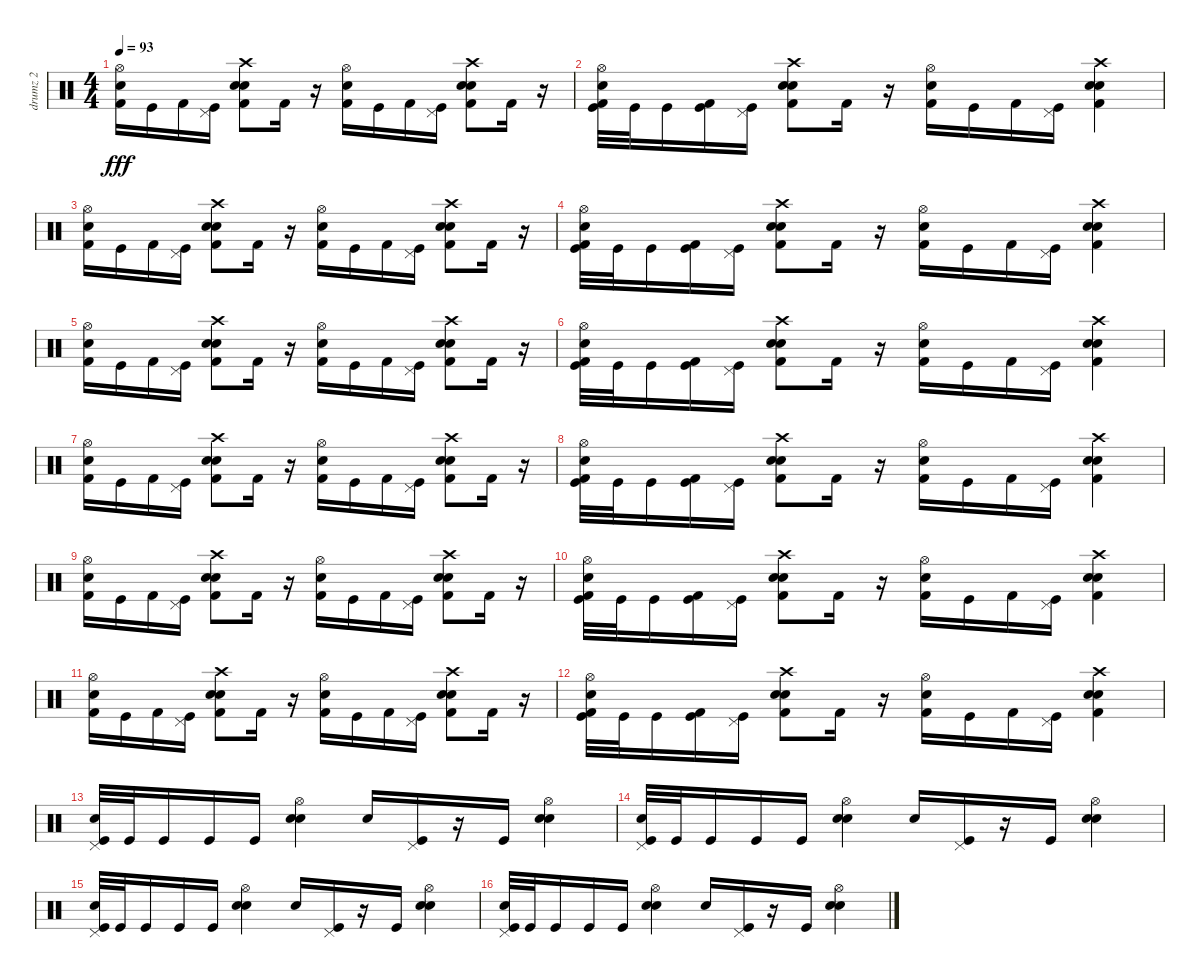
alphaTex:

\track ("drumz 2" "drumz 2") {instrument percussion}
\staff {score}
\articulation defaults
\ts (4 4)
\tempo 93
\clef neutral
\ks c
("Hi-Hat (open)" "Hand Clap (hit)" "Kick (hit) 2").16{dy fff} "Kick (hit)".16 "Kick (hit) 2".16 ("Kick (hit)" "Pedal Hi-Hat (hit)").16 ("Snare (hit) 2" "Crash high (hit)" "Hand Clap (hit)" "Kick (hit) 2").8 "Kick (hit) 2".16 r.16 ("Hi-Hat (open)" "Hand Clap (hit)" "Kick (hit) 2").16 "Kick (hit)".16 "Kick (hit) 2".16 ("Kick (hit)" "Pedal Hi-Hat (hit)").16 ("Snare (hit) 2" "Crash high (hit)" "Hand Clap (hit)" "Kick (hit) 2").8 "Kick (hit) 2".16 r.16 |
("Kick (hit)" "Hand Clap (hit)" "Hi-Hat (open)" "Kick (hit) 2").32 "Kick (hit)".32 "Kick (hit)".16 ("Kick (hit)" "Kick (hit) 2").16 ("Kick (hit)" "Pedal Hi-Hat (hit)").16 ("Snare (hit) 2" "Hand Clap (hit)" "Crash high (hit)" "Kick (hit) 2").8 "Kick (hit) 2".16 r.16 ("Hand Clap (hit)" "Hi-Hat (open)" "Kick (hit) 2").16 "Kick (hit)".16 "Kick (hit) 2".16 ("Kick (hit)" "Pedal Hi-Hat (hit)").16 ("Snare (hit) 2" "Hand Clap (hit)" "Crash high (hit)" "Kick (hit) 2").4 |
("Hi-Hat (open)" "Hand Clap (hit)" "Kick (hit) 2").16 "Kick (hit)".16 "Kick (hit) 2".16 ("Kick (hit)" "Pedal Hi-Hat (hit)").16 ("Snare (hit) 2" "Crash high (hit)" "Hand Clap (hit)" "Kick (hit) 2").8 "Kick (hit) 2".16 r.16 ("Hi-Hat (open)" "Hand Clap (hit)" "Kick (hit) 2").16 "Kick (hit)".16 "Kick (hit) 2".16 ("Kick (hit)" "Pedal Hi-Hat (hit)").16 ("Snare (hit) 2" "Crash high (hit)" "Hand Clap (hit)" "Kick (hit) 2").8 "Kick (hit) 2".16 r.16 |
("Kick (hit)" "Hand Clap (hit)" "Hi-Hat (open)" "Kick (hit) 2").32 "Kick (hit)".32 "Kick (hit)".16 ("Kick (hit)" "Kick (hit) 2").16 ("Kick (hit)" "Pedal Hi-Hat (hit)").16 ("Snare (hit) 2" "Hand Clap (hit)" "Crash high (hit)" "Kick (hit) 2").8 "Kick (hit) 2".16 r.16 ("Hand Clap (hit)" "Hi-Hat (open)" "Kick (hit) 2").16 "Kick (hit)".16 "Kick (hit) 2".16 ("Kick (hit)" "Pedal Hi-Hat (hit)").16 ("Snare (hit) 2" "Hand Clap (hit)" "Crash high (hit)" "Kick (hit) 2").4 |
("Hi-Hat (open)" "Hand Clap (hit)" "Kick (hit) 2").16 "Kick (hit)".16 "Kick (hit) 2".16 ("Kick (hit)" "Pedal Hi-Hat (hit)").16 ("Snare (hit) 2" "Crash high (hit)" "Hand Clap (hit)" "Kick (hit) 2").8 "Kick (hit) 2".16 r.16 ("Hi-Hat (open)" "Hand Clap (hit)" "Kick (hit) 2").16 "Kick (hit)".16 "Kick (hit) 2".16 ("Kick (hit)" "Pedal Hi-Hat (hit)").16 ("Snare (hit) 2" "Crash high (hit)" "Hand Clap (hit)" "Kick (hit) 2").8 "Kick (hit) 2".16 r.16 |
("Kick (hit)" "Hand Clap (hit)" "Hi-Hat (open)" "Kick (hit) 2").32 "Kick (hit)".32 "Kick (hit)".16 ("Kick (hit)" "Kick (hit) 2").16 ("Kick (hit)" "Pedal Hi-Hat (hit)").16 ("Snare (hit) 2" "Hand Clap (hit)" "Crash high (hit)" "Kick (hit) 2").8 "Kick (hit) 2".16 r.16 ("Hand Clap (hit)" "Hi-Hat (open)" "Kick (hit) 2").16 "Kick (hit)".16 "Kick (hit) 2".16 ("Kick (hit)" "Pedal Hi-Hat (hit)").16 ("Snare (hit) 2" "Hand Clap (hit)" "Crash high (hit)" "Kick (hit) 2").4 |
("Hi-Hat (open)" "Hand Clap (hit)" "Kick (hit) 2").16 "Kick (hit)".16 "Kick (hit) 2".16 ("Kick (hit)" "Pedal Hi-Hat (hit)").16 ("Snare (hit) 2" "Crash high (hit)" "Hand Clap (hit)" "Kick (hit) 2").8 "Kick (hit) 2".16 r.16 ("Hi-Hat (open)" "Hand Clap (hit)" "Kick (hit) 2").16 "Kick (hit)".16 "Kick (hit) 2".16 ("Kick (hit)" "Pedal Hi-Hat (hit)").16 ("Snare (hit) 2" "Crash high (hit)" "Hand Clap (hit)" "Kick (hit) 2").8 "Kick (hit) 2".16 r.16 |
("Kick (hit)" "Hand Clap (hit)" "Hi-Hat (open)" "Kick (hit) 2").32 "Kick (hit)".32 "Kick (hit)".16 ("Kick (hit)" "Kick (hit) 2").16 ("Kick (hit)" "Pedal Hi-Hat (hit)").16 ("Snare (hit) 2" "Hand Clap (hit)" "Crash high (hit)" "Kick (hit) 2").8 "Kick (hit) 2".16 r.16 ("Hand Clap (hit)" "Hi-Hat (open)" "Kick (hit) 2").16 "Kick (hit)".16 "Kick (hit) 2".16 ("Kick (hit)" "Pedal Hi-Hat (hit)").16 ("Snare (hit) 2" "Hand Clap (hit)" "Crash high (hit)" "Kick (hit) 2").4 |
("Hi-Hat (open)" "Hand Clap (hit)" "Kick (hit) 2").16 "Kick (hit)".16 "Kick (hit) 2".16 ("Kick (hit)" "Pedal Hi-Hat (hit)").16 ("Snare (hit) 2" "Crash high (hit)" "Hand Clap (hit)" "Kick (hit) 2").8 "Kick (hit) 2".16 r.16 ("Hi-Hat (open)" "Hand Clap (hit)" "Kick (hit) 2").16 "Kick (hit)".16 "Kick (hit) 2".16 ("Kick (hit)" "Pedal Hi-Hat (hit)").16 ("Snare (hit) 2" "Crash high (hit)" "Hand Clap (hit)" "Kick (hit) 2").8 "Kick (hit) 2".16 r.16 |
("Kick (hit)" "Hand Clap (hit)" "Hi-Hat (open)" "Kick (hit) 2").32 "Kick (hit)".32 "Kick (hit)".16 ("Kick (hit)" "Kick (hit) 2").16 ("Kick (hit)" "Pedal Hi-Hat (hit)").16 ("Snare (hit) 2" "Hand Clap (hit)" "Crash high (hit)" "Kick (hit) 2").8 "Kick (hit) 2".16 r.16 ("Hand Clap (hit)" "Hi-Hat (open)" "Kick (hit) 2").16 "Kick (hit)".16 "Kick (hit) 2".16 ("Kick (hit)" "Pedal Hi-Hat (hit)").16 ("Snare (hit) 2" "Hand Clap (hit)" "Crash high (hit)" "Kick (hit) 2").4 |
("Hi-Hat (open)" "Hand Clap (hit)" "Kick (hit) 2").16 "Kick (hit)".16 "Kick (hit) 2".16 ("Kick (hit)" "Pedal Hi-Hat (hit)").16 ("Snare (hit) 2" "Crash high (hit)" "Hand Clap (hit)" "Kick (hit) 2").8 "Kick (hit) 2".16 r.16 ("Hi-Hat (open)" "Hand Clap (hit)" "Kick (hit) 2").16 "Kick (hit)".16 "Kick (hit) 2".16 ("Kick (hit)" "Pedal Hi-Hat (hit)").16 ("Snare (hit) 2" "Crash high (hit)" "Hand Clap (hit)" "Kick (hit) 2").8 "Kick (hit) 2".16 r.16 |
("Kick (hit)" "Hand Clap (hit)" "Hi-Hat (open)" "Kick (hit) 2").32 "Kick (hit)".32 "Kick (hit)".16 ("Kick (hit)" "Kick (hit) 2").16 ("Kick (hit)" "Pedal Hi-Hat (hit)").16 ("Snare (hit) 2" "Hand Clap (hit)" "Crash high (hit)" "Kick (hit) 2").8 "Kick (hit) 2".16 r.16 ("Hand Clap (hit)" "Hi-Hat (open)" "Kick (hit) 2").16 "Kick (hit)".16 "Kick (hit) 2".16 ("Kick (hit)" "Pedal Hi-Hat (hit)").16 ("Snare (hit) 2" "Hand Clap (hit)" "Crash high (hit)" "Kick (hit) 2").4 |
("Kick (hit)" "Pedal Hi-Hat (hit)" "Hand Clap (hit)").32 "Kick (hit)".32 "Kick (hit)".16 "Kick (hit)".16 "Kick (hit)".16 ("Snare (hit) 2" "Hi-Hat (open)" "Hand Clap (hit)").4 "Hand Clap (hit)".16 ("Kick (hit)" "Pedal Hi-Hat (hit)").16 r.16 "Kick (hit)".16 ("Snare (hit) 2" "Hi-Hat (open)" "Hand Clap (hit)").4 |
("Kick (hit)" "Pedal Hi-Hat (hit)" "Hand Clap (hit)").32 "Kick (hit)".32 "Kick (hit)".16 "Kick (hit)".16 "Kick (hit)".16 ("Snare (hit) 2" "Hi-Hat (open)" "Hand Clap (hit)").4 "Hand Clap (hit)".16 ("Kick (hit)" "Pedal Hi-Hat (hit)").16 r.16 "Kick (hit)".16 ("Snare (hit) 2" "Hi-Hat (open)" "Hand Clap (hit)").4 |
("Kick (hit)" "Pedal Hi-Hat (hit)" "Hand Clap (hit)").32 "Kick (hit)".32 "Kick (hit)".16 "Kick (hit)".16 "Kick (hit)".16 ("Snare (hit) 2" "Hi-Hat (open)" "Hand Clap (hit)").4 "Hand Clap (hit)".16 ("Kick (hit)" "Pedal Hi-Hat (hit)").16 r.16 "Kick (hit)".16 ("Snare (hit) 2" "Hi-Hat (open)" "Hand Clap (hit)").4 |
("Kick (hit)" "Pedal Hi-Hat (hit)" "Hand Clap (hit)").32 "Kick (hit)".32 "Kick (hit)".16 "Kick (hit)".16 "Kick (hit)".16 ("Snare (hit) 2" "Hi-Hat (open)" "Hand Clap (hit)").4 "Hand Clap (hit)".16 ("Kick (hit)" "Pedal Hi-Hat (hit)").16 r.16 "Kick (hit)".16 ("Snare (hit) 2" "Hi-Hat (open)" "Hand Clap (hit)").4
